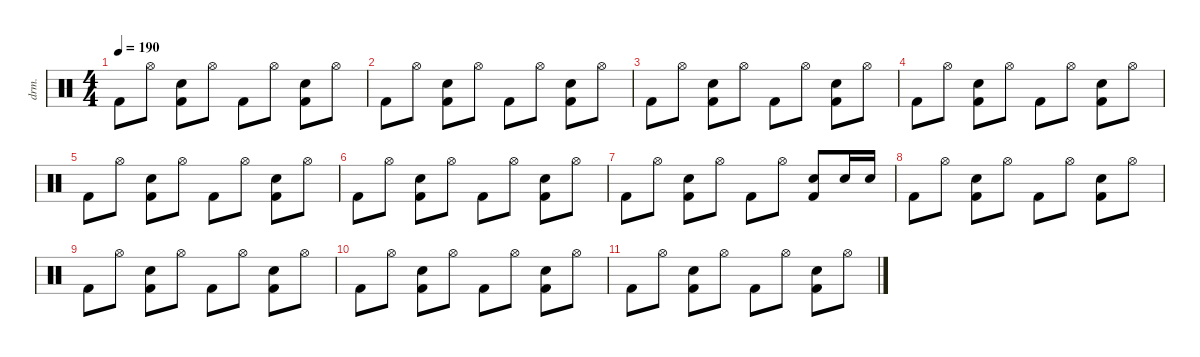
\defaultSystemsLayout 4
\hideDynamics
\bracketExtendMode nobrackets
\track ("伊地知虹夏" "drm.") {instrument percussion}
\staff {score}
\articulation defaults
\ts (4 4)
\tempo 190
\clef neutral
\ks c "Kick (hit) 2".8{dy mf} "Hi-Hat (open)".8
("Snare (hit) 2" "Kick (hit) 2").8 "Hi-Hat (open)".8 "Kick (hit) 2".8 "Hi-Hat (open)".8 ("Kick (hit) 2" "Snare (hit) 2").8 "Hi-Hat (open)".8 |
"Kick (hit) 2".8 "Hi-Hat (open)".8 ("Snare (hit) 2" "Kick (hit) 2").8 "Hi-Hat (open)".8 "Kick (hit) 2".8 "Hi-Hat (open)".8 ("Kick (hit) 2" "Snare (hit) 2").8 "Hi-Hat (open)".8 |
"Kick (hit) 2".8 "Hi-Hat (open)".8 ("Snare (hit) 2" "Kick (hit) 2").8 "Hi-Hat (open)".8 "Kick (hit) 2".8 "Hi-Hat (open)".8 ("Kick (hit) 2" "Snare (hit) 2").8 "Hi-Hat (open)".8 |
"Kick (hit) 2".8 "Hi-Hat (open)".8 ("Snare (hit) 2" "Kick (hit) 2").8 "Hi-Hat (open)".8 "Kick (hit) 2".8 "Hi-Hat (open)".8 ("Kick (hit) 2" "Snare (hit) 2").8 "Hi-Hat (open)".8 |
"Kick (hit) 2".8 "Hi-Hat (open)".8 ("Snare (hit) 2" "Kick (hit) 2").8 "Hi-Hat (open)".8 "Kick (hit) 2".8 "Hi-Hat (open)".8 ("Kick (hit) 2" "Snare (hit) 2").8 "Hi-Hat (open)".8 |
"Kick (hit) 2".8 "Hi-Hat (open)".8 ("Snare (hit) 2" "Kick (hit) 2").8 "Hi-Hat (open)".8 "Kick (hit) 2".8 "Hi-Hat (open)".8 ("Kick (hit) 2" "Snare (hit) 2").8 "Hi-Hat (open)".8 |
"Kick (hit) 2".8 "Hi-Hat (open)".8 ("Snare (hit) 2" "Kick (hit) 2").8 "Hi-Hat (open)".8 "Kick (hit) 2".8 "Hi-Hat (open)".8 ("Kick (hit) 2" "Snare (hit) 2").8 "Snare (hit) 2".16 "Snare (hit) 2".16 |
"Kick (hit) 2".8 "Hi-Hat (open)".8 ("Snare (hit) 2" "Kick (hit) 2").8 "Hi-Hat (open)".8 "Kick (hit) 2".8 "Hi-Hat (open)".8 ("Kick (hit) 2" "Snare (hit) 2").8 "Hi-Hat (open)".8 |
"Kick (hit) 2".8 "Hi-Hat (open)".8 ("Snare (hit) 2" "Kick (hit) 2").8 "Hi-Hat (open)".8 "Kick (hit) 2".8 "Hi-Hat (open)".8 ("Kick (hit) 2" "Snare (hit) 2").8 "Hi-Hat (open)".8 |
"Kick (hit) 2".8 "Hi-Hat (open)".8 ("Snare (hit) 2" "Kick (hit) 2").8 "Hi-Hat (open)".8 "Kick (hit) 2".8 "Hi-Hat (open)".8 ("Kick (hit) 2" "Snare (hit) 2").8 "Hi-Hat (open)".8 |
"Kick (hit) 2".8 "Hi-Hat (open)".8 ("Snare (hit) 2" "Kick (hit) 2").8 "Hi-Hat (open)".8 "Kick (hit) 2".8 "Hi-Hat (open)".8 ("Kick (hit) 2" "Snare (hit) 2").8 "Hi-Hat (open)".8
